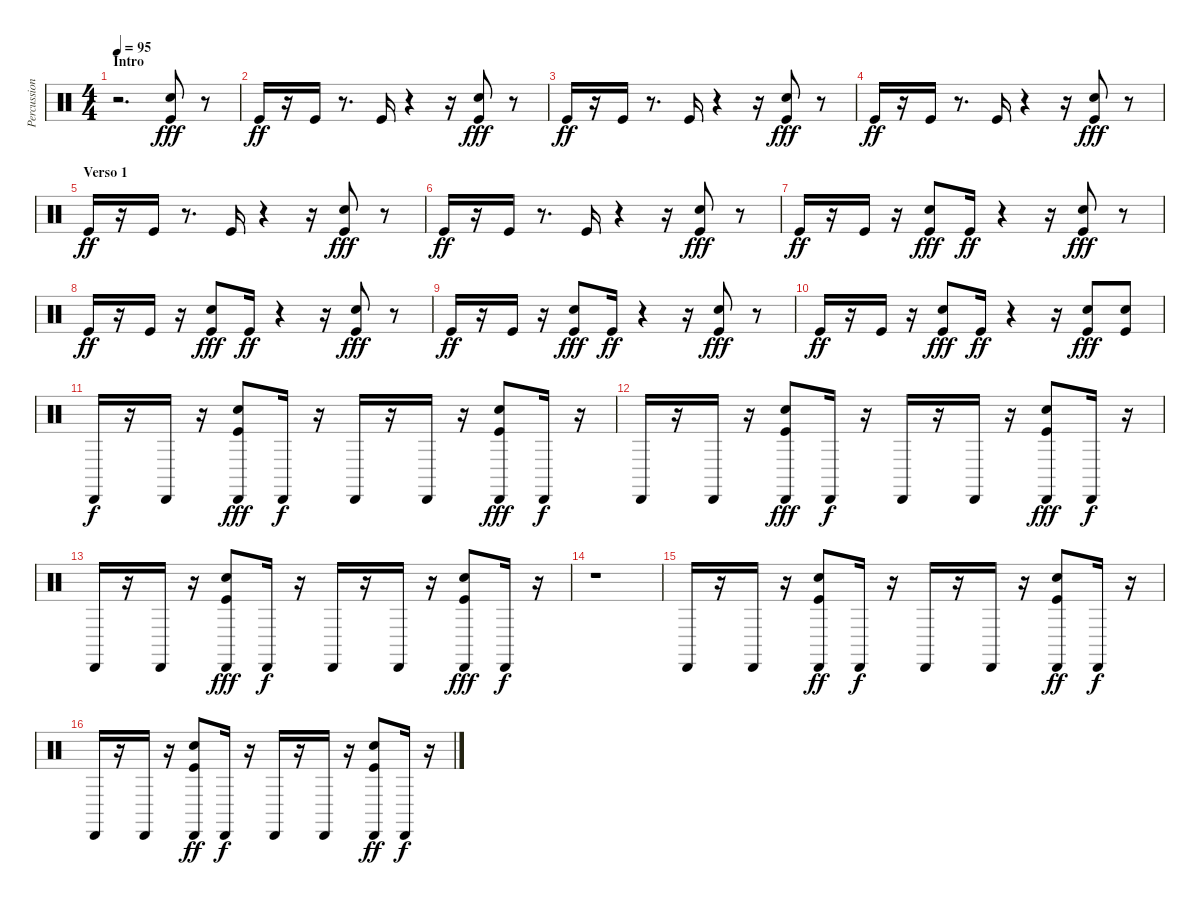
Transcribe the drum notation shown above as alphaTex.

\track ("Percussion" "Percussion") {instrument percussion}
\staff {score}
\articulation defaults
\ts (4 4)
\section ("" "Intro")
\tempo 95
\clef neutral
\ks c
r.2{d dy fff} ("Snare (hit) 2" "Kick (hit)").8 r.8 |
"Kick (hit)".16{dy ff} r.16 "Kick (hit)".16 r.8{d} "Kick (hit)".16 r.4 r.16 ("Snare (hit) 2" "Kick (hit)").8{dy fff} r.8 |
"Kick (hit)".16{dy ff} r.16 "Kick (hit)".16 r.8{d} "Kick (hit)".16 r.4 r.16 ("Snare (hit) 2" "Kick (hit)").8{dy fff} r.8 |
"Kick (hit)".16{dy ff} r.16 "Kick (hit)".16 r.8{d} "Kick (hit)".16 r.4 r.16 ("Snare (hit) 2" "Kick (hit)").8{dy fff} r.8 |
\section ("" "Verso 1")
"Kick (hit)".16{dy ff} r.16 "Kick (hit)".16 r.8{d} "Kick (hit)".16 r.4 r.16 ("Snare (hit) 2" "Kick (hit)").8{dy fff} r.8 |
"Kick (hit)".16{dy ff} r.16 "Kick (hit)".16 r.8{d} "Kick (hit)".16 r.4 r.16 ("Snare (hit) 2" "Kick (hit)").8{dy fff} r.8 |
"Kick (hit)".16{dy ff} r.16 "Kick (hit)".16 r.16 ("Snare (hit) 2" "Kick (hit)").8{dy fff} "Kick (hit)".16{dy ff} r.4 r.16 ("Snare (hit) 2" "Kick (hit)").8{dy fff} r.8 |
"Kick (hit)".16{dy ff} r.16 "Kick (hit)".16 r.16 ("Snare (hit) 2" "Kick (hit)").8{dy fff} "Kick (hit)".16{dy ff} r.4 r.16 ("Snare (hit) 2" "Kick (hit)").8{dy fff} r.8 |
"Kick (hit)".16{dy ff} r.16 "Kick (hit)".16 r.16 ("Snare (hit) 2" "Kick (hit)").8{dy fff} "Kick (hit)".16{dy ff} r.4 r.16 ("Snare (hit) 2" "Kick (hit)").8{dy fff} r.8 |
"Kick (hit)".16{dy ff} r.16 "Kick (hit)".16 r.16 ("Snare (hit) 2" "Kick (hit)").8{dy fff} "Kick (hit)".16{dy ff} r.4 r.16 ("Snare (hit) 2" "Kick (hit)").8{dy fff} ("Snare (hit) 2" "Kick (hit)").8 |
"Cabasa (hit)".16{dy f} r.16 "Cabasa (hit)".16 r.16 ("Snare (hit) 2" "Kick (hit)" "Cabasa (hit)").8{dy fff} "Cabasa (hit)".16{dy f} r.16 "Cabasa (hit)".16 r.16 "Cabasa (hit)".16 r.16 ("Snare (hit) 2" "Kick (hit)" "Cabasa (hit)").8{dy fff} "Cabasa (hit)".16{dy f} r.16 |
"Cabasa (hit)".16 r.16 "Cabasa (hit)".16 r.16 ("Snare (hit) 2" "Kick (hit)" "Cabasa (hit)").8{dy fff} "Cabasa (hit)".16{dy f} r.16 "Cabasa (hit)".16 r.16 "Cabasa (hit)".16 r.16 ("Snare (hit) 2" "Kick (hit)" "Cabasa (hit)").8{dy fff} "Cabasa (hit)".16{dy f} r.16 |
"Cabasa (hit)".16 r.16 "Cabasa (hit)".16 r.16 ("Snare (hit) 2" "Kick (hit)" "Cabasa (hit)").8{dy fff} "Cabasa (hit)".16{dy f} r.16 "Cabasa (hit)".16 r.16 "Cabasa (hit)".16 r.16 ("Snare (hit) 2" "Kick (hit)" "Cabasa (hit)").8{dy fff} "Cabasa (hit)".16{dy f} r.16 |
r.1 |
"Cabasa (hit)".16 r.16 "Cabasa (hit)".16 r.16 ("Snare (hit) 2" "Kick (hit)" "Cabasa (hit)").8{dy ff} "Cabasa (hit)".16{dy f} r.16 "Cabasa (hit)".16 r.16 "Cabasa (hit)".16 r.16 ("Snare (hit) 2" "Kick (hit)" "Cabasa (hit)").8{dy ff} "Cabasa (hit)".16{dy f} r.16 |
"Cabasa (hit)".16 r.16 "Cabasa (hit)".16 r.16 ("Snare (hit) 2" "Kick (hit)" "Cabasa (hit)").8{dy ff} "Cabasa (hit)".16{dy f} r.16 "Cabasa (hit)".16 r.16 "Cabasa (hit)".16 r.16 ("Snare (hit) 2" "Kick (hit)" "Cabasa (hit)").8{dy ff} "Cabasa (hit)".16{dy f} r.16
